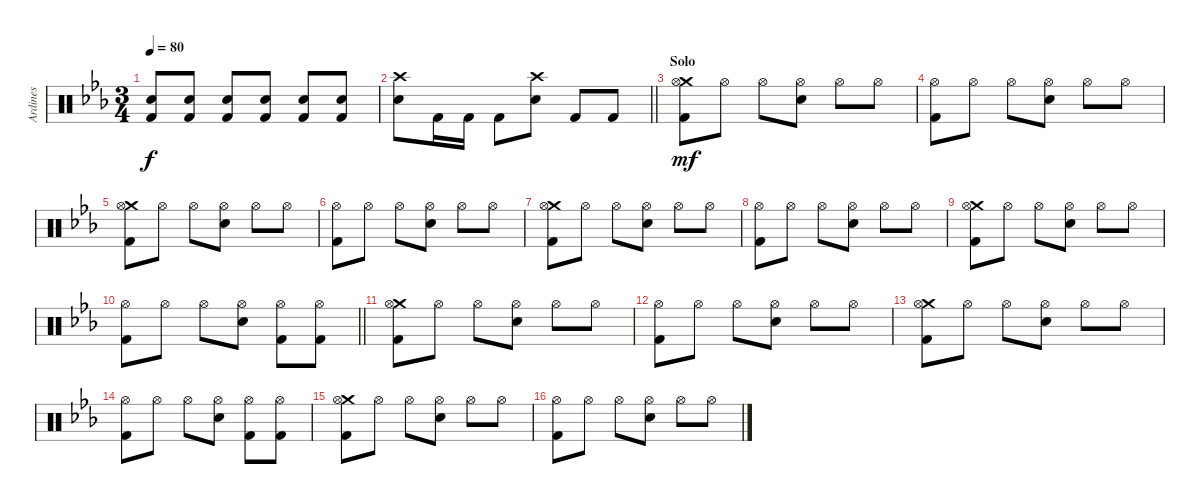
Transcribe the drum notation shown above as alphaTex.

\track ("Ardines" "Ardines") {instrument percussion}
\staff {score}
\articulation defaults
\ts (3 4)
\tempo 80
\clef neutral
\ks eb
("Snare (hit) 2" "Kick (hit) 2").8{dy f} ("Snare (hit) 2" "Kick (hit) 2").8 ("Snare (hit) 2" "Kick (hit) 2").8 ("Snare (hit) 2" "Kick (hit) 2").8 ("Snare (hit) 2" "Kick (hit) 2").8 ("Snare (hit) 2" "Kick (hit) 2").8 |
\barLineRight lightlight
("Snare (hit) 2" "Crash high (hit)").8 "Kick (hit) 2".16 "Kick (hit) 2".16 "Kick (hit) 2".8 ("Snare (hit) 2" "Crash high (hit)").8 "Kick (hit) 2".8 "Kick (hit) 2".8 |
\section ("" "Solo")
("Kick (hit) 2" "Crash medium (hit)" "Hi-Hat (open)").8{dy mf} "Hi-Hat (open)".8 "Hi-Hat (open)".8 ("Snare (hit) 2" "Hi-Hat (open)").8 "Hi-Hat (open)".8 "Hi-Hat (open)".8 |
("Kick (hit) 2" "Hi-Hat (open)").8 "Hi-Hat (open)".8 "Hi-Hat (open)".8 ("Snare (hit) 2" "Hi-Hat (open)").8 "Hi-Hat (open)".8 "Hi-Hat (open)".8 |
("Kick (hit) 2" "Crash medium (hit)" "Hi-Hat (open)").8 "Hi-Hat (open)".8 "Hi-Hat (open)".8 ("Snare (hit) 2" "Hi-Hat (open)").8 "Hi-Hat (open)".8 "Hi-Hat (open)".8 |
("Kick (hit) 2" "Hi-Hat (open)").8 "Hi-Hat (open)".8 "Hi-Hat (open)".8 ("Snare (hit) 2" "Hi-Hat (open)").8 "Hi-Hat (open)".8 "Hi-Hat (open)".8 |
("Kick (hit) 2" "Crash medium (hit)" "Hi-Hat (open)").8 "Hi-Hat (open)".8 "Hi-Hat (open)".8 ("Snare (hit) 2" "Hi-Hat (open)").8 "Hi-Hat (open)".8 "Hi-Hat (open)".8 |
("Kick (hit) 2" "Hi-Hat (open)").8 "Hi-Hat (open)".8 "Hi-Hat (open)".8 ("Snare (hit) 2" "Hi-Hat (open)").8 "Hi-Hat (open)".8 "Hi-Hat (open)".8 |
("Kick (hit) 2" "Crash medium (hit)" "Hi-Hat (open)").8 "Hi-Hat (open)".8 "Hi-Hat (open)".8 ("Snare (hit) 2" "Hi-Hat (open)").8 "Hi-Hat (open)".8 "Hi-Hat (open)".8 |
\barLineRight lightlight
("Kick (hit) 2" "Hi-Hat (open)").8 "Hi-Hat (open)".8 "Hi-Hat (open)".8 ("Snare (hit) 2" "Hi-Hat (open)").8 ("Kick (hit) 2" "Hi-Hat (open)").8 ("Kick (hit) 2" "Hi-Hat (open)").8 |
\section ("" "")
("Kick (hit) 2" "Crash medium (hit)" "Hi-Hat (open)").8 "Hi-Hat (open)".8 "Hi-Hat (open)".8 ("Snare (hit) 2" "Hi-Hat (open)").8 "Hi-Hat (open)".8 "Hi-Hat (open)".8 |
("Kick (hit) 2" "Hi-Hat (open)").8 "Hi-Hat (open)".8 "Hi-Hat (open)".8 ("Snare (hit) 2" "Hi-Hat (open)").8 "Hi-Hat (open)".8 "Hi-Hat (open)".8 |
("Kick (hit) 2" "Crash medium (hit)" "Hi-Hat (open)").8 "Hi-Hat (open)".8 "Hi-Hat (open)".8 ("Snare (hit) 2" "Hi-Hat (open)").8 "Hi-Hat (open)".8 "Hi-Hat (open)".8 |
("Kick (hit) 2" "Hi-Hat (open)").8 "Hi-Hat (open)".8 "Hi-Hat (open)".8 ("Snare (hit) 2" "Hi-Hat (open)").8 ("Kick (hit) 2" "Hi-Hat (open)").8 ("Kick (hit) 2" "Hi-Hat (open)").8 |
("Kick (hit) 2" "Crash medium (hit)" "Hi-Hat (open)").8 "Hi-Hat (open)".8 "Hi-Hat (open)".8 ("Snare (hit) 2" "Hi-Hat (open)").8 "Hi-Hat (open)".8 "Hi-Hat (open)".8 |
("Kick (hit) 2" "Hi-Hat (open)").8 "Hi-Hat (open)".8 "Hi-Hat (open)".8 ("Snare (hit) 2" "Hi-Hat (open)").8 "Hi-Hat (open)".8 "Hi-Hat (open)".8
